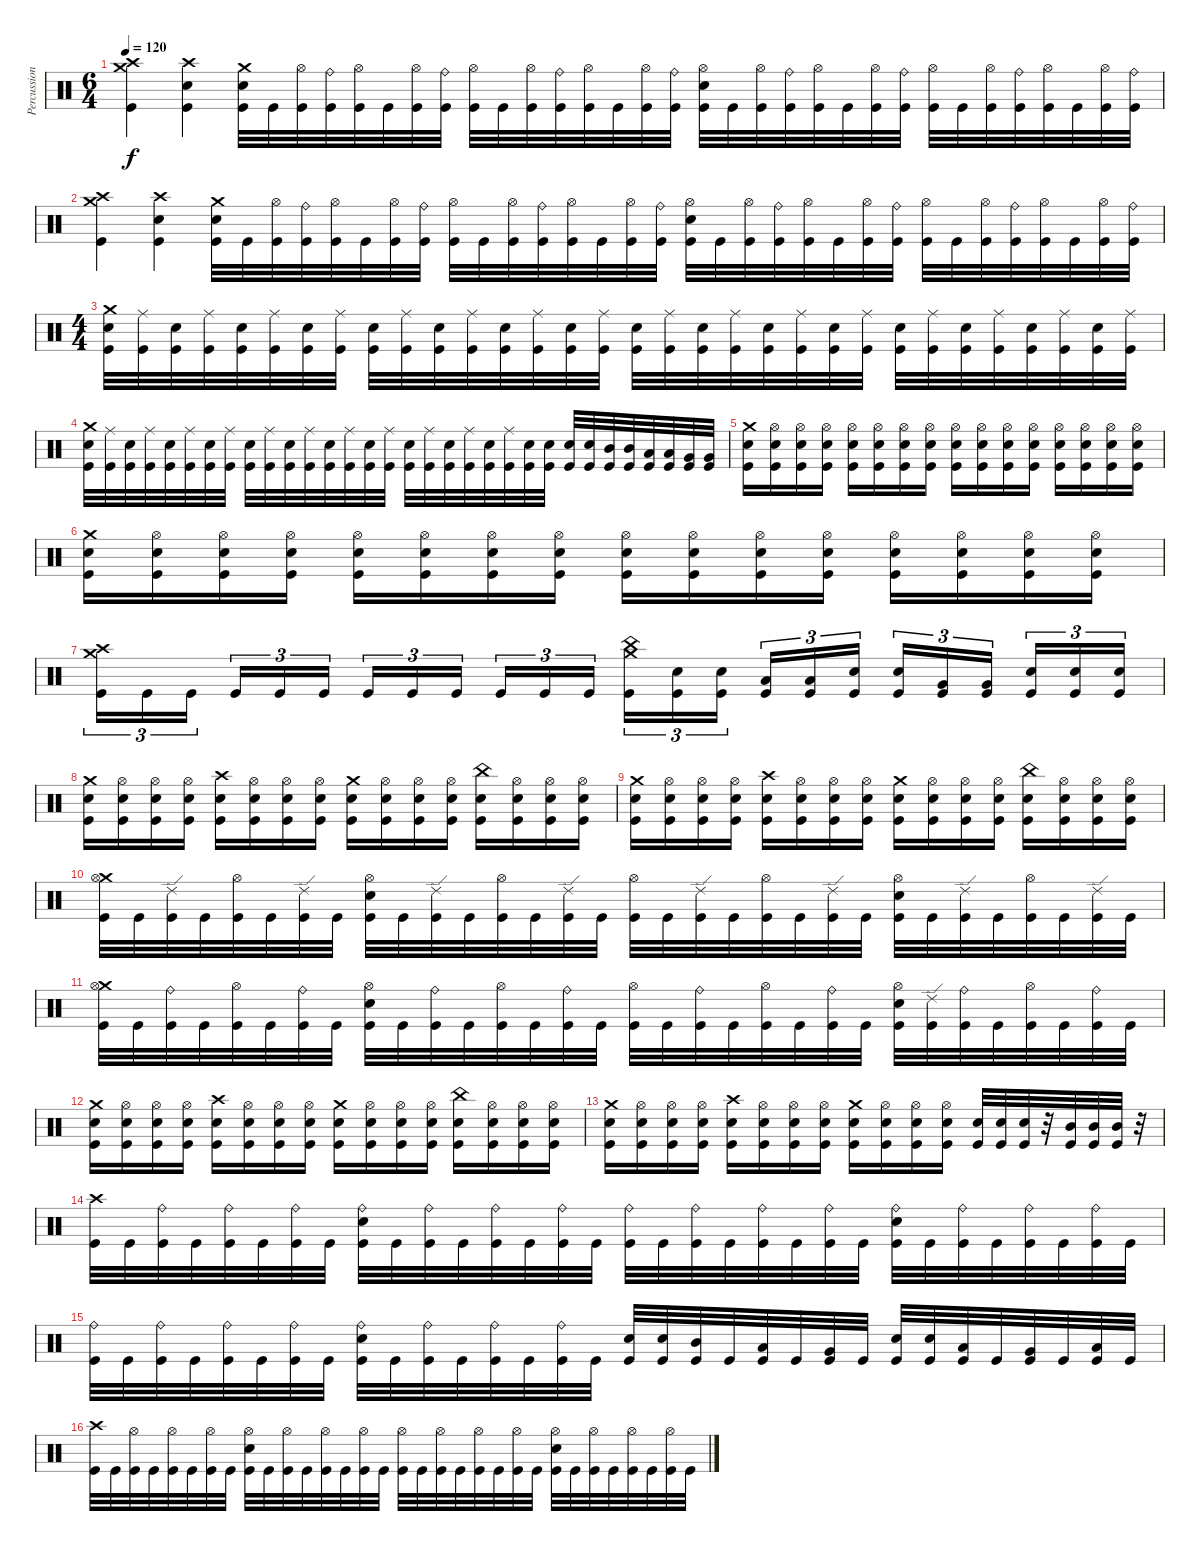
\track ("Percussion" "Percussion") {instrument percussion}
\staff {score}
\articulation defaults
\ts (6 4)
\tempo 120
\clef neutral
\ks c
("Crash medium (hit)" "Crash high (hit)" "Kick (hit)").4{dy f} ("Crash high (hit)" "Electric Snare (hit)" "Kick (hit)").4 ("Crash medium (hit)" "Electric Snare (hit)" "Kick (hit)").32 "Kick (hit)".32 ("Hi-Hat (open)" "Kick (hit)").32 ("Ride (bell)" "Kick (hit)").32 ("Hi-Hat (open)" "Kick (hit)").32 "Kick (hit)".32 ("Hi-Hat (open)" "Kick (hit)").32 ("Ride (bell)" "Kick (hit)").32 ("Hi-Hat (open)" "Kick (hit)").32 "Kick (hit)".32 ("Hi-Hat (open)" "Kick (hit)").32 ("Ride (bell)" "Kick (hit)").32 ("Hi-Hat (open)" "Kick (hit)").32 "Kick (hit)".32 ("Hi-Hat (open)" "Kick (hit)").32 ("Ride (bell)" "Kick (hit)").32 ("Hi-Hat (open)" "Electric Snare (hit)" "Kick (hit)").32 "Kick (hit)".32 ("Hi-Hat (open)" "Kick (hit)").32 ("Ride (bell)" "Kick (hit)").32 ("Hi-Hat (open)" "Kick (hit)").32 "Kick (hit)".32 ("Hi-Hat (open)" "Kick (hit)").32 ("Ride (bell)" "Kick (hit)").32 ("Hi-Hat (open)" "Kick (hit)").32 "Kick (hit)".32 ("Hi-Hat (open)" "Kick (hit)").32 ("Ride (bell)" "Kick (hit)").32 ("Hi-Hat (open)" "Kick (hit)").32 "Kick (hit)".32 ("Hi-Hat (open)" "Kick (hit)").32 ("Ride (bell)" "Kick (hit)").32 |
("Crash medium (hit)" "Crash high (hit)" "Kick (hit)").4 ("Crash high (hit)" "Electric Snare (hit)" "Kick (hit)").4 ("Crash medium (hit)" "Electric Snare (hit)" "Kick (hit)").32 "Kick (hit)".32 ("Hi-Hat (open)" "Kick (hit)").32 ("Ride (bell)" "Kick (hit)").32 ("Hi-Hat (open)" "Kick (hit)").32 "Kick (hit)".32 ("Hi-Hat (open)" "Kick (hit)").32 ("Ride (bell)" "Kick (hit)").32 ("Hi-Hat (open)" "Kick (hit)").32 "Kick (hit)".32 ("Hi-Hat (open)" "Kick (hit)").32 ("Ride (bell)" "Kick (hit)").32 ("Hi-Hat (open)" "Kick (hit)").32 "Kick (hit)".32 ("Hi-Hat (open)" "Kick (hit)").32 ("Ride (bell)" "Kick (hit)").32 ("Hi-Hat (open)" "Electric Snare (hit)" "Kick (hit)").32 "Kick (hit)".32 ("Hi-Hat (open)" "Kick (hit)").32 ("Ride (bell)" "Kick (hit)").32 ("Hi-Hat (open)" "Kick (hit)").32 "Kick (hit)".32 ("Hi-Hat (open)" "Kick (hit)").32 ("Ride (bell)" "Kick (hit)").32 ("Hi-Hat (open)" "Kick (hit)").32 "Kick (hit)".32 ("Hi-Hat (open)" "Kick (hit)").32 ("Ride (bell)" "Kick (hit)").32 ("Hi-Hat (open)" "Kick (hit)").32 "Kick (hit)".32 ("Hi-Hat (open)" "Kick (hit)").32 ("Ride (bell)" "Kick (hit)").32 |
\ts (4 4)
("Crash medium (hit)" "Electric Snare (hit)" "Kick (hit)").32 ("Ride (middle)" "Kick (hit)").32 ("Electric Snare (hit)" "Kick (hit)").32 ("Ride (middle)" "Kick (hit)").32 ("Electric Snare (hit)" "Kick (hit)").32 ("Ride (middle)" "Kick (hit)").32 ("Electric Snare (hit)" "Kick (hit)").32 ("Ride (middle)" "Kick (hit)").32 ("Electric Snare (hit)" "Kick (hit)").32 ("Ride (middle)" "Kick (hit)").32 ("Electric Snare (hit)" "Kick (hit)").32 ("Ride (middle)" "Kick (hit)").32 ("Electric Snare (hit)" "Kick (hit)").32 ("Ride (middle)" "Kick (hit)").32 ("Electric Snare (hit)" "Kick (hit)").32 ("Ride (middle)" "Kick (hit)").32 ("Electric Snare (hit)" "Kick (hit)").32 ("Ride (middle)" "Kick (hit)").32 ("Electric Snare (hit)" "Kick (hit)").32 ("Ride (middle)" "Kick (hit)").32 ("Electric Snare (hit)" "Kick (hit)").32 ("Ride (middle)" "Kick (hit)").32 ("Electric Snare (hit)" "Kick (hit)").32 ("Ride (middle)" "Kick (hit)").32 ("Electric Snare (hit)" "Kick (hit)").32 ("Ride (middle)" "Kick (hit)").32 ("Electric Snare (hit)" "Kick (hit)").32 ("Ride (middle)" "Kick (hit)").32 ("Electric Snare (hit)" "Kick (hit)").32 ("Ride (middle)" "Kick (hit)").32 ("Electric Snare (hit)" "Kick (hit)").32 ("Ride (middle)" "Kick (hit)").32 |
("Crash medium (hit)" "Electric Snare (hit)" "Kick (hit)").32 ("Ride (middle)" "Kick (hit)").32 ("Electric Snare (hit)" "Kick (hit)").32 ("Ride (middle)" "Kick (hit)").32 ("Electric Snare (hit)" "Kick (hit)").32 ("Ride (middle)" "Kick (hit)").32 ("Electric Snare (hit)" "Kick (hit)").32 ("Ride (middle)" "Kick (hit)").32 ("Electric Snare (hit)" "Kick (hit)").32 ("Ride (middle)" "Kick (hit)").32 ("Electric Snare (hit)" "Kick (hit)").32 ("Ride (middle)" "Kick (hit)").32 ("Electric Snare (hit)" "Kick (hit)").32 ("Ride (middle)" "Kick (hit)").32 ("Electric Snare (hit)" "Kick (hit)").32 ("Ride (middle)" "Kick (hit)").32 ("Electric Snare (hit)" "Kick (hit)").32 ("Ride (middle)" "Kick (hit)").32 ("Electric Snare (hit)" "Kick (hit)").32 ("Ride (middle)" "Kick (hit)").32 ("Electric Snare (hit)" "Kick (hit)").32 ("Ride (middle)" "Kick (hit)").32 ("Electric Snare (hit)" "Kick (hit)").32 ("Electric Snare (hit)" "Kick (hit)").32 ("Electric Snare (hit)" "Kick (hit)").32 ("Electric Snare (hit)" "Kick (hit)").32 ("Mid Tom (hit)" "Kick (hit)").32 ("Mid Tom (hit)" "Kick (hit)").32 ("Low Tom (hit)" "Kick (hit)").32 ("Low Tom (hit)" "Kick (hit)").32 ("Very Low Tom (hit)" "Kick (hit)").32 ("Very Low Tom (hit)" "Kick (hit)").32 |
("Crash medium (hit)" "Electric Snare (hit)" "Kick (hit)").16 ("Hi-Hat (open)" "Electric Snare (hit)" "Kick (hit)").16 ("Hi-Hat (open)" "Electric Snare (hit)" "Kick (hit)").16 ("Hi-Hat (open)" "Electric Snare (hit)" "Kick (hit)").16 ("Hi-Hat (open)" "Electric Snare (hit)" "Kick (hit)").16 ("Hi-Hat (open)" "Electric Snare (hit)" "Kick (hit)").16 ("Hi-Hat (open)" "Electric Snare (hit)" "Kick (hit)").16 ("Hi-Hat (open)" "Electric Snare (hit)" "Kick (hit)").16 ("Hi-Hat (open)" "Electric Snare (hit)" "Kick (hit)").16 ("Hi-Hat (open)" "Electric Snare (hit)" "Kick (hit)").16 ("Hi-Hat (open)" "Electric Snare (hit)" "Kick (hit)").16 ("Hi-Hat (open)" "Electric Snare (hit)" "Kick (hit)").16 ("Hi-Hat (open)" "Electric Snare (hit)" "Kick (hit)").16 ("Hi-Hat (open)" "Electric Snare (hit)" "Kick (hit)").16 ("Hi-Hat (open)" "Electric Snare (hit)" "Kick (hit)").16 ("Hi-Hat (open)" "Electric Snare (hit)" "Kick (hit)").16 |
("Crash medium (hit)" "Electric Snare (hit)" "Kick (hit)").16 ("Hi-Hat (open)" "Electric Snare (hit)" "Kick (hit)").16 ("Hi-Hat (open)" "Electric Snare (hit)" "Kick (hit)").16 ("Hi-Hat (open)" "Electric Snare (hit)" "Kick (hit)").16 ("Hi-Hat (open)" "Electric Snare (hit)" "Kick (hit)").16 ("Hi-Hat (open)" "Electric Snare (hit)" "Kick (hit)").16 ("Hi-Hat (open)" "Electric Snare (hit)" "Kick (hit)").16 ("Hi-Hat (open)" "Electric Snare (hit)" "Kick (hit)").16 ("Hi-Hat (open)" "Electric Snare (hit)" "Kick (hit)").16 ("Hi-Hat (open)" "Electric Snare (hit)" "Kick (hit)").16 ("Hi-Hat (open)" "Electric Snare (hit)" "Kick (hit)").16 ("Hi-Hat (open)" "Electric Snare (hit)" "Kick (hit)").16 ("Hi-Hat (open)" "Electric Snare (hit)" "Kick (hit)").16 ("Hi-Hat (open)" "Electric Snare (hit)" "Kick (hit)").16 ("Hi-Hat (open)" "Electric Snare (hit)" "Kick (hit)").16 ("Hi-Hat (open)" "Electric Snare (hit)" "Kick (hit)").16 |
("Crash medium (hit)" "Crash high (hit)" "Kick (hit)").16{tu (3 2)} "Kick (hit)".16{tu (3 2)} "Kick (hit)".16{tu (3 2)} "Kick (hit)".16{tu (3 2)} "Kick (hit)".16{tu (3 2)} "Kick (hit)".16{tu (3 2)} "Kick (hit)".16{tu (3 2)} "Kick (hit)".16{tu (3 2)} "Kick (hit)".16{tu (3 2)} "Kick (hit)".16{tu (3 2)} "Kick (hit)".16{tu (3 2)} "Kick (hit)".16{tu (3 2)} ("China (hit)" "Crash medium (hit)" "Kick (hit)").16{tu (3 2)} ("Electric Snare (hit)" "Kick (hit)").16{tu (3 2)} ("Electric Snare (hit)" "Kick (hit)").16{tu (3 2)} ("Low Tom (hit)" "Kick (hit)").16{tu (3 2)} ("Low Tom (hit)" "Kick (hit)").16{tu (3 2)} ("Electric Snare (hit)" "Kick (hit)").16{tu (3 2)} ("Electric Snare (hit)" "Kick (hit)").16{tu (3 2)} ("Very Low Tom (hit)" "Kick (hit)").16{tu (3 2)} ("Very Low Tom (hit)" "Kick (hit)").16{tu (3 2)} ("Electric Snare (hit)" "Kick (hit)").16{tu (3 2)} ("Electric Snare (hit)" "Kick (hit)").16{tu (3 2)} ("Electric Snare (hit)" "Kick (hit)").16{tu (3 2)} |
("Crash medium (hit)" "Electric Snare (hit)" "Kick (hit)").16 ("Hi-Hat (open)" "Electric Snare (hit)" "Kick (hit)").16 ("Hi-Hat (open)" "Electric Snare (hit)" "Kick (hit)").16 ("Hi-Hat (open)" "Electric Snare (hit)" "Kick (hit)").16 ("Crash high (hit)" "Electric Snare (hit)" "Kick (hit)").16 ("Hi-Hat (open)" "Electric Snare (hit)" "Kick (hit)").16 ("Hi-Hat (open)" "Electric Snare (hit)" "Kick (hit)").16 ("Hi-Hat (open)" "Electric Snare (hit)" "Kick (hit)").16 ("Crash medium (hit)" "Electric Snare (hit)" "Kick (hit)").16 ("Hi-Hat (open)" "Electric Snare (hit)" "Kick (hit)").16 ("Hi-Hat (open)" "Electric Snare (hit)" "Kick (hit)").16 ("Hi-Hat (open)" "Electric Snare (hit)" "Kick (hit)").16 ("China (hit)" "Electric Snare (hit)" "Kick (hit)").16 ("Hi-Hat (open)" "Electric Snare (hit)" "Kick (hit)").16 ("Hi-Hat (open)" "Electric Snare (hit)" "Kick (hit)").16 ("Hi-Hat (open)" "Electric Snare (hit)" "Kick (hit)").16 |
("Crash medium (hit)" "Electric Snare (hit)" "Kick (hit)").16 ("Hi-Hat (open)" "Electric Snare (hit)" "Kick (hit)").16 ("Hi-Hat (open)" "Electric Snare (hit)" "Kick (hit)").16 ("Hi-Hat (open)" "Electric Snare (hit)" "Kick (hit)").16 ("Crash high (hit)" "Electric Snare (hit)" "Kick (hit)").16 ("Hi-Hat (open)" "Electric Snare (hit)" "Kick (hit)").16 ("Hi-Hat (open)" "Electric Snare (hit)" "Kick (hit)").16 ("Hi-Hat (open)" "Electric Snare (hit)" "Kick (hit)").16 ("Crash medium (hit)" "Electric Snare (hit)" "Kick (hit)").16 ("Hi-Hat (open)" "Electric Snare (hit)" "Kick (hit)").16 ("Hi-Hat (open)" "Electric Snare (hit)" "Kick (hit)").16 ("Hi-Hat (open)" "Electric Snare (hit)" "Kick (hit)").16 ("China (hit)" "Electric Snare (hit)" "Kick (hit)").16 ("Hi-Hat (open)" "Electric Snare (hit)" "Kick (hit)").16 ("Hi-Hat (open)" "Electric Snare (hit)" "Kick (hit)").16 ("Hi-Hat (open)" "Electric Snare (hit)" "Kick (hit)").16 |
("Crash medium (hit)" "Hi-Hat (open)" "Kick (hit)").32 "Kick (hit)".32 ("Ride (edge) 2" "Kick (hit)").32 "Kick (hit)".32 ("Hi-Hat (open)" "Kick (hit)").32 "Kick (hit)".32 ("Ride (edge) 2" "Kick (hit)").32 "Kick (hit)".32 ("Hi-Hat (open)" "Electric Snare (hit)" "Kick (hit)").32 "Kick (hit)".32 ("Ride (edge) 2" "Kick (hit)").32 "Kick (hit)".32 ("Hi-Hat (open)" "Kick (hit)").32 "Kick (hit)".32 ("Ride (edge) 2" "Kick (hit)").32 "Kick (hit)".32 ("Hi-Hat (open)" "Kick (hit)").32 "Kick (hit)".32 ("Ride (edge) 2" "Kick (hit)").32 "Kick (hit)".32 ("Hi-Hat (open)" "Kick (hit)").32 "Kick (hit)".32 ("Ride (edge) 2" "Kick (hit)").32 "Kick (hit)".32 ("Hi-Hat (open)" "Electric Snare (hit)" "Kick (hit)").32 "Kick (hit)".32 ("Ride (edge) 2" "Kick (hit)").32 "Kick (hit)".32 ("Hi-Hat (open)" "Kick (hit)").32 "Kick (hit)".32 ("Ride (edge) 2" "Kick (hit)").32 "Kick (hit)".32 |
("Crash medium (hit)" "Hi-Hat (open)" "Kick (hit)").32 "Kick (hit)".32 ("Ride (bell)" "Kick (hit)").32 "Kick (hit)".32 ("Hi-Hat (open)" "Kick (hit)").32 "Kick (hit)".32 ("Ride (bell)" "Kick (hit)").32 "Kick (hit)".32 ("Hi-Hat (open)" "Electric Snare (hit)" "Kick (hit)").32 "Kick (hit)".32 ("Ride (bell)" "Kick (hit)").32 "Kick (hit)".32 ("Hi-Hat (open)" "Kick (hit)").32 "Kick (hit)".32 ("Ride (bell)" "Kick (hit)").32 "Kick (hit)".32 ("Hi-Hat (open)" "Kick (hit)").32 "Kick (hit)".32 ("Ride (bell)" "Kick (hit)").32 "Kick (hit)".32 ("Hi-Hat (open)" "Kick (hit)").32 "Kick (hit)".32 ("Ride (bell)" "Kick (hit)").32 "Kick (hit)".32 ("Hi-Hat (open)" "Electric Snare (hit)" "Kick (hit)").32 ("Ride (edge) 2" "Kick (hit)").32 ("Ride (bell)" "Kick (hit)").32 "Kick (hit)".32 ("Hi-Hat (open)" "Kick (hit)").32 "Kick (hit)".32 ("Ride (bell)" "Kick (hit)").32 "Kick (hit)".32 |
("Crash medium (hit)" "Electric Snare (hit)" "Kick (hit)").16 ("Hi-Hat (open)" "Electric Snare (hit)" "Kick (hit)").16 ("Hi-Hat (open)" "Electric Snare (hit)" "Kick (hit)").16 ("Hi-Hat (open)" "Electric Snare (hit)" "Kick (hit)").16 ("Crash high (hit)" "Electric Snare (hit)" "Kick (hit)").16 ("Hi-Hat (open)" "Electric Snare (hit)" "Kick (hit)").16 ("Hi-Hat (open)" "Electric Snare (hit)" "Kick (hit)").16 ("Hi-Hat (open)" "Electric Snare (hit)" "Kick (hit)").16 ("Crash medium (hit)" "Electric Snare (hit)" "Kick (hit)").16 ("Hi-Hat (open)" "Electric Snare (hit)" "Kick (hit)").16 ("Hi-Hat (open)" "Electric Snare (hit)" "Kick (hit)").16 ("Hi-Hat (open)" "Electric Snare (hit)" "Kick (hit)").16 ("China (hit)" "Electric Snare (hit)" "Kick (hit)").16 ("Hi-Hat (open)" "Electric Snare (hit)" "Kick (hit)").16 ("Hi-Hat (open)" "Electric Snare (hit)" "Kick (hit)").16 ("Hi-Hat (open)" "Electric Snare (hit)" "Kick (hit)").16 |
("Crash medium (hit)" "Electric Snare (hit)" "Kick (hit)").16 ("Hi-Hat (open)" "Electric Snare (hit)" "Kick (hit)").16 ("Hi-Hat (open)" "Electric Snare (hit)" "Kick (hit)").16 ("Hi-Hat (open)" "Electric Snare (hit)" "Kick (hit)").16 ("Crash high (hit)" "Electric Snare (hit)" "Kick (hit)").16 ("Hi-Hat (open)" "Electric Snare (hit)" "Kick (hit)").16 ("Hi-Hat (open)" "Electric Snare (hit)" "Kick (hit)").16 ("Hi-Hat (open)" "Electric Snare (hit)" "Kick (hit)").16 ("Crash medium (hit)" "Electric Snare (hit)" "Kick (hit)").16 ("Hi-Hat (open)" "Electric Snare (hit)" "Kick (hit)").16 ("Hi-Hat (open)" "Electric Snare (hit)" "Kick (hit)").16 ("Hi-Hat (open)" "Electric Snare (hit)" "Kick (hit)").16 ("Electric Snare (hit)" "Kick (hit)").32 ("Electric Snare (hit)" "Kick (hit)").32 ("Electric Snare (hit)" "Kick (hit)").32 r.32 ("Mid Tom (hit)" "Kick (hit)").32 ("Mid Tom (hit)" "Kick (hit)").32 ("Mid Tom (hit)" "Kick (hit)").32 r.32 |
("Crash high (hit)" "Kick (hit)").32 "Kick (hit)".32 ("Ride (bell)" "Kick (hit)").32 "Kick (hit)".32 ("Ride (bell)" "Kick (hit)").32 "Kick (hit)".32 ("Ride (bell)" "Kick (hit)").32 "Kick (hit)".32 ("Ride (bell)" "Electric Snare (hit)" "Kick (hit)").32 "Kick (hit)".32 ("Ride (bell)" "Kick (hit)").32 "Kick (hit)".32 ("Ride (bell)" "Kick (hit)").32 "Kick (hit)".32 ("Ride (bell)" "Kick (hit)").32 "Kick (hit)".32 ("Ride (bell)" "Kick (hit)").32 "Kick (hit)".32 ("Ride (bell)" "Kick (hit)").32 "Kick (hit)".32 ("Ride (bell)" "Kick (hit)").32 "Kick (hit)".32 ("Ride (bell)" "Kick (hit)").32 "Kick (hit)".32 ("Ride (bell)" "Electric Snare (hit)" "Kick (hit)").32 "Kick (hit)".32 ("Ride (bell)" "Kick (hit)").32 "Kick (hit)".32 ("Ride (bell)" "Kick (hit)").32 "Kick (hit)".32 ("Ride (bell)" "Kick (hit)").32 "Kick (hit)".32 |
("Ride (bell)" "Kick (hit)").32 "Kick (hit)".32 ("Ride (bell)" "Kick (hit)").32 "Kick (hit)".32 ("Ride (bell)" "Kick (hit)").32 "Kick (hit)".32 ("Ride (bell)" "Kick (hit)").32 "Kick (hit)".32 ("Ride (bell)" "Electric Snare (hit)" "Kick (hit)").32 "Kick (hit)".32 ("Ride (bell)" "Kick (hit)").32 "Kick (hit)".32 ("Ride (bell)" "Kick (hit)").32 "Kick (hit)".32 ("Ride (bell)" "Kick (hit)").32 "Kick (hit)".32 ("Electric Snare (hit)" "Kick (hit)").32 ("Electric Snare (hit)" "Kick (hit)").32 ("Mid Tom (hit)" "Kick (hit)").32 "Kick (hit)".32 ("Low Tom (hit)" "Kick (hit)").32 "Kick (hit)".32 ("Very Low Tom (hit)" "Kick (hit)").32 "Kick (hit)".32 ("Electric Snare (hit)" "Kick (hit)").32 ("Electric Snare (hit)" "Kick (hit)").32 ("Low Tom (hit)" "Kick (hit)").32 "Kick (hit)".32 ("Very Low Tom (hit)" "Kick (hit)").32 "Kick (hit)".32 ("Low Floor Tom (hit)" "Kick (hit)").32 "Kick (hit)".32 |
("Crash high (hit)" "Kick (hit)").32 "Kick (hit)".32 ("Hi-Hat (open)" "Kick (hit)").32 "Kick (hit)".32 ("Hi-Hat (open)" "Kick (hit)").32 "Kick (hit)".32 ("Hi-Hat (open)" "Kick (hit)").32 "Kick (hit)".32 ("Hi-Hat (open)" "Electric Snare (hit)" "Kick (hit)").32 "Kick (hit)".32 ("Hi-Hat (open)" "Kick (hit)").32 "Kick (hit)".32 ("Hi-Hat (open)" "Kick (hit)").32 "Kick (hit)".32 ("Hi-Hat (open)" "Kick (hit)").32 "Kick (hit)".32 ("Hi-Hat (open)" "Kick (hit)").32 "Kick (hit)".32 ("Hi-Hat (open)" "Kick (hit)").32 "Kick (hit)".32 ("Hi-Hat (open)" "Kick (hit)").32 "Kick (hit)".32 ("Hi-Hat (open)" "Kick (hit)").32 "Kick (hit)".32 ("Hi-Hat (open)" "Electric Snare (hit)" "Kick (hit)").32 "Kick (hit)".32 ("Hi-Hat (open)" "Kick (hit)").32 "Kick (hit)".32 ("Hi-Hat (open)" "Kick (hit)").32 "Kick (hit)".32 ("Hi-Hat (open)" "Kick (hit)").32 "Kick (hit)".32
